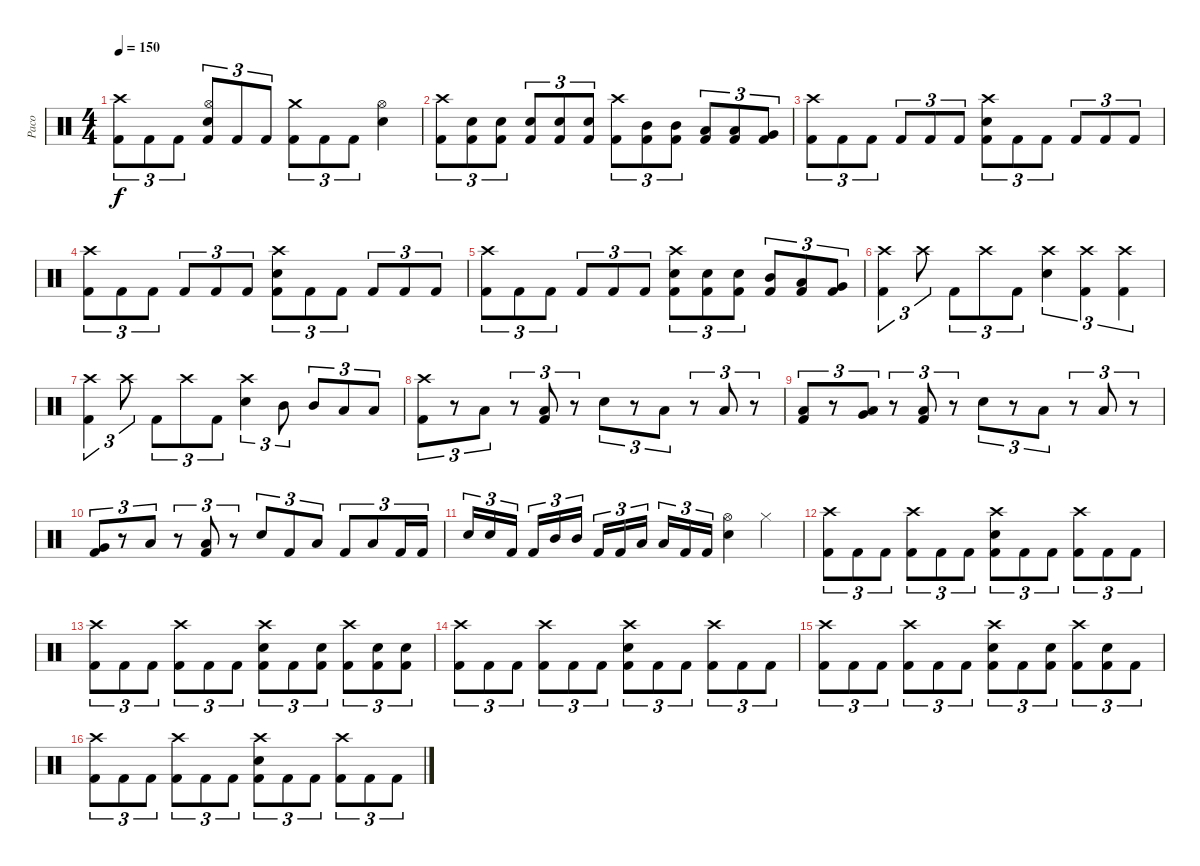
\track ("Paco" "Paco") {instrument percussion}
\staff {score}
\articulation defaults
\ts (4 4)
\tempo 150
\clef neutral
\ks c
("Crash high (hit)" "Kick (hit) 2").8{tu (3 2) dy f} "Kick (hit) 2".8{tu (3 2)} "Kick (hit) 2".8{tu (3 2)} ("Hi-Hat (open)" "Electric Snare (hit)" "Kick (hit) 2").8{tu (3 2)} "Kick (hit) 2".8{tu (3 2)} "Kick (hit) 2".8{tu (3 2)} ("Crash medium (hit)" "Kick (hit) 2").8{tu (3 2)} "Kick (hit) 2".8{tu (3 2)} "Kick (hit) 2".8{tu (3 2)} ("Hi-Hat (open)" "Electric Snare (hit)").4 |
("Crash high (hit)" "Kick (hit) 2").8{tu (3 2)} ("Electric Snare (hit)" "Kick (hit) 2").8{tu (3 2)} ("Electric Snare (hit)" "Kick (hit) 2").8{tu (3 2)} ("Electric Snare (hit)" "Kick (hit) 2").8{tu (3 2)} ("Electric Snare (hit)" "Kick (hit) 2").8{tu (3 2)} ("Electric Snare (hit)" "Kick (hit) 2").8{tu (3 2)} ("Crash high (hit)" "Kick (hit) 2").8{tu (3 2)} ("Mid Tom (hit)" "Kick (hit) 2").8{tu (3 2)} ("Mid Tom (hit)" "Kick (hit) 2").8{tu (3 2)} ("Low Tom (hit)" "Kick (hit) 2").8{tu (3 2)} ("Low Tom (hit)" "Kick (hit) 2").8{tu (3 2)} ("Very Low Tom (hit)" "Kick (hit) 2").8{tu (3 2)} |
("Crash high (hit)" "Kick (hit) 2").8{tu (3 2)} "Kick (hit) 2".8{tu (3 2)} "Kick (hit) 2".8{tu (3 2)} "Kick (hit) 2".8{tu (3 2)} "Kick (hit) 2".8{tu (3 2)} "Kick (hit) 2".8{tu (3 2)} ("Crash high (hit)" "Electric Snare (hit)" "Kick (hit) 2").8{tu (3 2)} "Kick (hit) 2".8{tu (3 2)} "Kick (hit) 2".8{tu (3 2)} "Kick (hit) 2".8{tu (3 2)} "Kick (hit) 2".8{tu (3 2)} "Kick (hit) 2".8{tu (3 2)} |
("Crash high (hit)" "Kick (hit) 2").8{tu (3 2)} "Kick (hit) 2".8{tu (3 2)} "Kick (hit) 2".8{tu (3 2)} "Kick (hit) 2".8{tu (3 2)} "Kick (hit) 2".8{tu (3 2)} "Kick (hit) 2".8{tu (3 2)} ("Crash high (hit)" "Electric Snare (hit)" "Kick (hit) 2").8{tu (3 2)} "Kick (hit) 2".8{tu (3 2)} "Kick (hit) 2".8{tu (3 2)} "Kick (hit) 2".8{tu (3 2)} "Kick (hit) 2".8{tu (3 2)} "Kick (hit) 2".8{tu (3 2)} |
("Crash high (hit)" "Kick (hit) 2").8{tu (3 2)} "Kick (hit) 2".8{tu (3 2)} "Kick (hit) 2".8{tu (3 2)} "Kick (hit) 2".8{tu (3 2)} "Kick (hit) 2".8{tu (3 2)} "Kick (hit) 2".8{tu (3 2)} ("Crash high (hit)" "Electric Snare (hit)" "Kick (hit) 2").8{tu (3 2)} ("Electric Snare (hit)" "Kick (hit) 2").8{tu (3 2)} ("Electric Snare (hit)" "Kick (hit) 2").8{tu (3 2)} ("Mid Tom (hit)" "Kick (hit) 2").8{tu (3 2)} ("Low Tom (hit)" "Kick (hit) 2").8{tu (3 2)} ("Very Low Tom (hit)" "Kick (hit) 2").8{tu (3 2)} |
("Crash high (hit)" "Kick (hit) 2").4{tu (3 2)} "Crash high (hit)".8{tu (3 2)} "Kick (hit) 2".8{tu (3 2)} "Crash high (hit)".8{tu (3 2)} "Kick (hit) 2".8{tu (3 2)} ("Crash high (hit)" "Electric Snare (hit)").4{tu (3 2)} ("Crash high (hit)" "Kick (hit) 2").4{tu (3 2)} ("Crash high (hit)" "Kick (hit) 2").4{tu (3 2)} |
("Crash high (hit)" "Kick (hit) 2").4{tu (3 2)} "Crash high (hit)".8{tu (3 2)} "Kick (hit) 2".8{tu (3 2)} "Crash high (hit)".8{tu (3 2)} "Kick (hit) 2".8{tu (3 2)} ("Crash high (hit)" "Electric Snare (hit)").4{tu (3 2)} "Mid Tom (hit)".8{tu (3 2)} "Mid Tom (hit)".8{tu (3 2)} "Low Tom (hit)".8{tu (3 2)} "Low Tom (hit)".8{tu (3 2)} |
("Crash high (hit)" "Kick (hit) 2").8{tu (3 2)} r.8{tu (3 2)} "Low Floor Tom (hit)".8{tu (3 2)} r.8{tu (3 2)} ("Low Floor Tom (hit)" "Kick (hit) 2").8{tu (3 2)} r.8{tu (3 2)} "Electric Snare (hit)".8{tu (3 2)} r.8{tu (3 2)} "Low Floor Tom (hit)".8{tu (3 2)} r.8{tu (3 2)} "Low Floor Tom (hit)".8{tu (3 2)} r.8{tu (3 2)} |
("Low Tom (hit)" "Kick (hit) 2").8{tu (3 2)} r.8{tu (3 2)} ("Very Low Tom (hit)" "Low Floor Tom (hit)").8{tu (3 2)} r.8{tu (3 2)} ("Low Floor Tom (hit)" "Kick (hit) 2").8{tu (3 2)} r.8{tu (3 2)} "Electric Snare (hit)".8{tu (3 2)} r.8{tu (3 2)} "Low Floor Tom (hit)".8{tu (3 2)} r.8{tu (3 2)} "Low Floor Tom (hit)".8{tu (3 2)} r.8{tu (3 2)} |
("Very Low Tom (hit)" "Kick (hit) 2").8{tu (3 2)} r.8{tu (3 2)} "Low Floor Tom (hit)".8{tu (3 2)} r.8{tu (3 2)} ("Low Floor Tom (hit)" "Kick (hit) 2").8{tu (3 2)} r.8{tu (3 2)} "Electric Snare (hit)".8{tu (3 2)} "Kick (hit) 2".8{tu (3 2)} "Low Floor Tom (hit)".8{tu (3 2)} "Kick (hit) 2".8{tu (3 2)} "Low Floor Tom (hit)".8{tu (3 2)} "Kick (hit) 2".16{tu (3 2)} "Kick (hit) 2".16{tu (3 2)} |
"Electric Snare (hit)".16{tu (3 2)} "Electric Snare (hit)".16{tu (3 2)} "Kick (hit) 2".16{tu (3 2) beam splitsecondary} "Kick (hit) 2".16{tu (3 2)} "Mid Tom (hit)".16{tu (3 2)} "Mid Tom (hit)".16{tu (3 2)} "Kick (hit) 2".16{tu (3 2)} "Kick (hit) 2".16{tu (3 2)} "Low Tom (hit)".16{tu (3 2) beam splitsecondary} "Low Tom (hit)".16{tu (3 2)} "Kick (hit) 2".16{tu (3 2)} "Kick (hit) 2".16{tu (3 2)} ("Hi-Hat (open)" "Electric Snare (hit)").4 "Hi-Hat (closed)".4 |
("Crash high (hit)" "Kick (hit) 2").8{tu (3 2)} "Kick (hit) 2".8{tu (3 2)} "Kick (hit) 2".8{tu (3 2)} ("Crash high (hit)" "Kick (hit) 2").8{tu (3 2)} "Kick (hit) 2".8{tu (3 2)} "Kick (hit) 2".8{tu (3 2)} ("Crash high (hit)" "Electric Snare (hit)" "Kick (hit) 2").8{tu (3 2)} "Kick (hit) 2".8{tu (3 2)} "Kick (hit) 2".8{tu (3 2)} ("Crash high (hit)" "Kick (hit) 2").8{tu (3 2)} "Kick (hit) 2".8{tu (3 2)} "Kick (hit) 2".8{tu (3 2)} |
("Crash high (hit)" "Kick (hit) 2").8{tu (3 2)} "Kick (hit) 2".8{tu (3 2)} "Kick (hit) 2".8{tu (3 2)} ("Crash high (hit)" "Kick (hit) 2").8{tu (3 2)} "Kick (hit) 2".8{tu (3 2)} "Kick (hit) 2".8{tu (3 2)} ("Crash high (hit)" "Electric Snare (hit)" "Kick (hit) 2").8{tu (3 2)} "Kick (hit) 2".8{tu (3 2)} ("Electric Snare (hit)" "Kick (hit) 2").8{tu (3 2)} ("Crash high (hit)" "Kick (hit) 2").8{tu (3 2)} ("Electric Snare (hit)" "Kick (hit) 2").8{tu (3 2)} ("Electric Snare (hit)" "Kick (hit) 2").8{tu (3 2)} |
("Crash high (hit)" "Kick (hit) 2").8{tu (3 2)} "Kick (hit) 2".8{tu (3 2)} "Kick (hit) 2".8{tu (3 2)} ("Crash high (hit)" "Kick (hit) 2").8{tu (3 2)} "Kick (hit) 2".8{tu (3 2)} "Kick (hit) 2".8{tu (3 2)} ("Crash high (hit)" "Electric Snare (hit)" "Kick (hit) 2").8{tu (3 2)} "Kick (hit) 2".8{tu (3 2)} "Kick (hit) 2".8{tu (3 2)} ("Crash high (hit)" "Kick (hit) 2").8{tu (3 2)} "Kick (hit) 2".8{tu (3 2)} "Kick (hit) 2".8{tu (3 2)} |
("Crash high (hit)" "Kick (hit) 2").8{tu (3 2)} "Kick (hit) 2".8{tu (3 2)} "Kick (hit) 2".8{tu (3 2)} ("Crash high (hit)" "Kick (hit) 2").8{tu (3 2)} "Kick (hit) 2".8{tu (3 2)} "Kick (hit) 2".8{tu (3 2)} ("Crash high (hit)" "Electric Snare (hit)" "Kick (hit) 2").8{tu (3 2)} "Kick (hit) 2".8{tu (3 2)} ("Electric Snare (hit)" "Kick (hit) 2").8{tu (3 2)} ("Crash high (hit)" "Kick (hit) 2").8{tu (3 2)} ("Electric Snare (hit)" "Kick (hit) 2").8{tu (3 2)} "Kick (hit) 2".8{tu (3 2)} |
("Crash high (hit)" "Kick (hit) 2").8{tu (3 2)} "Kick (hit) 2".8{tu (3 2)} "Kick (hit) 2".8{tu (3 2)} ("Crash high (hit)" "Kick (hit) 2").8{tu (3 2)} "Kick (hit) 2".8{tu (3 2)} "Kick (hit) 2".8{tu (3 2)} ("Crash high (hit)" "Electric Snare (hit)" "Kick (hit) 2").8{tu (3 2)} "Kick (hit) 2".8{tu (3 2)} "Kick (hit) 2".8{tu (3 2)} ("Crash high (hit)" "Kick (hit) 2").8{tu (3 2)} "Kick (hit) 2".8{tu (3 2)} "Kick (hit) 2".8{tu (3 2)}
